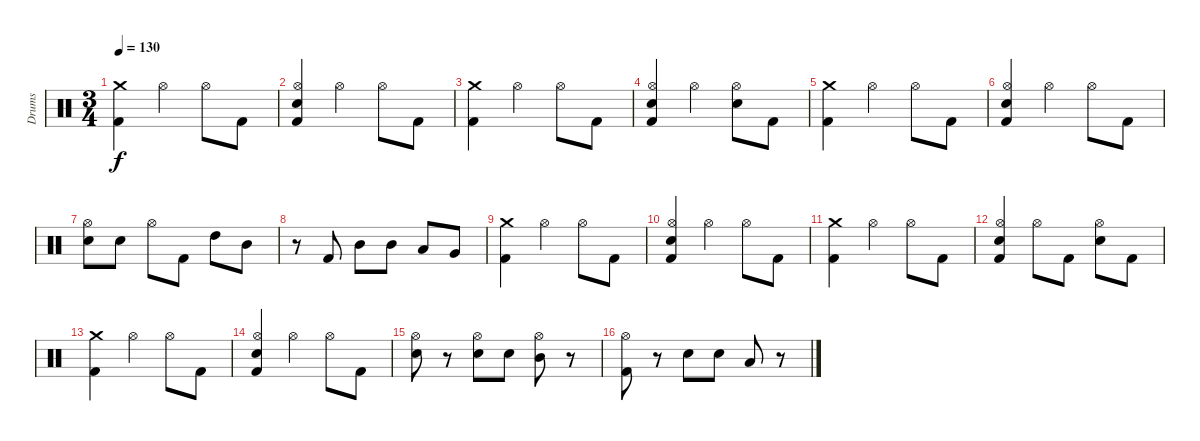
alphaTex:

\track ("Drums" "Drums") {instrument percussion}
\staff {score}
\articulation defaults
\ts (3 4)
\tempo 130
\clef neutral
\ks c
("Crash medium (hit)" "Kick (hit) 2").4{dy f} "Hi-Hat (open)".4 "Hi-Hat (open)".8 "Kick (hit) 2".8 |
("Hi-Hat (open)" "Electric Snare (hit)" "Kick (hit) 2").4 "Hi-Hat (open)".4 "Hi-Hat (open)".8 "Kick (hit) 2".8 |
("Crash medium (hit)" "Kick (hit) 2").4 "Hi-Hat (open)".4 "Hi-Hat (open)".8 "Kick (hit) 2".8 |
("Hi-Hat (open)" "Electric Snare (hit)" "Kick (hit) 2").4 "Hi-Hat (open)".4 ("Hi-Hat (open)" "Electric Snare (hit)").8 "Kick (hit) 2".8 |
("Crash medium (hit)" "Kick (hit) 2").4 "Hi-Hat (open)".4 "Hi-Hat (open)".8 "Kick (hit) 2".8 |
("Hi-Hat (open)" "Electric Snare (hit)" "Kick (hit) 2").4 "Hi-Hat (open)".4 "Hi-Hat (open)".8 "Kick (hit) 2".8 |
("Hi-Hat (open)" "Electric Snare (hit)").8 "Electric Snare (hit)".8 "Hi-Hat (open)".8 "Kick (hit) 2".8 "High Tom (hit)".8 "Mid Tom (hit)".8 |
r.8 "Kick (hit) 2".8 "Mid Tom (hit)".8 "Mid Tom (hit)".8 "Low Tom (hit)".8 "Very Low Tom (hit)".8 |
("Crash medium (hit)" "Kick (hit) 2").4 "Hi-Hat (open)".4 "Hi-Hat (open)".8 "Kick (hit) 2".8 |
("Hi-Hat (open)" "Electric Snare (hit)" "Kick (hit) 2").4 "Hi-Hat (open)".4 "Hi-Hat (open)".8 "Kick (hit) 2".8 |
("Crash medium (hit)" "Kick (hit) 2").4 "Hi-Hat (open)".4 "Hi-Hat (open)".8 "Kick (hit) 2".8 |
("Hi-Hat (open)" "Electric Snare (hit)" "Kick (hit) 2").4 "Hi-Hat (open)".8 "Kick (hit) 2".8 ("Hi-Hat (open)" "Electric Snare (hit)").8 "Kick (hit) 2".8 |
("Crash medium (hit)" "Kick (hit) 2").4 "Hi-Hat (open)".4 "Hi-Hat (open)".8 "Kick (hit) 2".8 |
("Hi-Hat (open)" "Electric Snare (hit)" "Kick (hit) 2").4 "Hi-Hat (open)".4 "Hi-Hat (open)".8 "Kick (hit) 2".8 |
("Hi-Hat (open)" "Electric Snare (hit)").8 r.8 ("Hi-Hat (open)" "Electric Snare (hit)").8 "Electric Snare (hit)".8 ("Hi-Hat (open)" "Mid Tom (hit)").8 r.8 |
("Hi-Hat (open)" "Kick (hit) 2").8 r.8 "Electric Snare (hit)".8 "Electric Snare (hit)".8 "Low Tom (hit)".8 r.8
